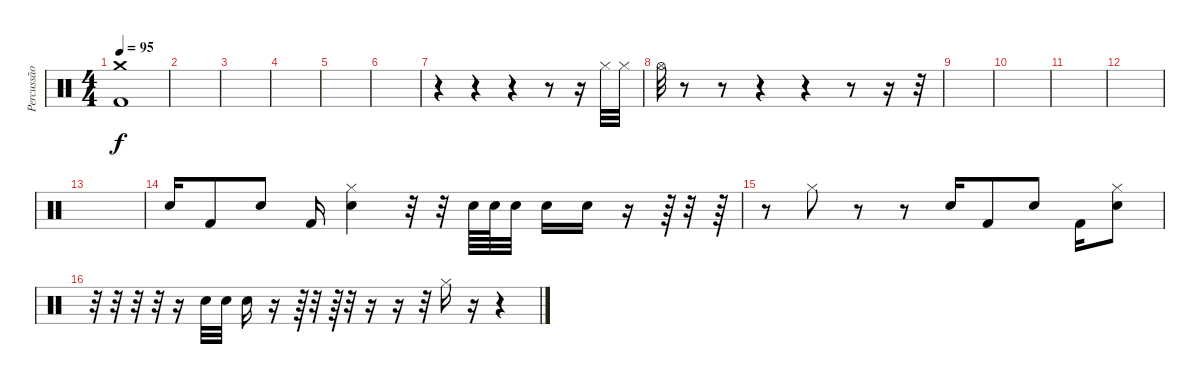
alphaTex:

\track ("Percussão" "Percussão") {instrument percussion}
\staff {score}
\articulation defaults
\ts (4 4)
\tempo 95
\clef neutral
\ks c
("Kick (hit) 2" "Crash medium (hit)").1{dy f} |
|
|
|
|
|
r.4 r.4 r.4 r.8 r.16 "Hi-Hat (closed)".32{volume 7} "Hi-Hat (closed)".32 |
"Hi-Hat (open)".32 r.8 r.8 r.4 r.4 r.8 r.16 r.32 |
|
|
|
|
|
"Snare (hit) 2".16{volume 16} "Kick (hit) 2".8 "Electric Snare (hit)".8 "Kick (hit) 2".16 ("Electric Snare (hit)" "Hi-Hat (closed)").4 r.32 r.32 "Snare (hit) 2".64 "Snare (hit) 2".64 "Snare (hit) 2".32 "Electric Snare (hit)".16 "Electric Snare (hit)".16 r.16 r.64 r.32 r.64 |
r.8 "Hi-Hat (closed)".8 r.8 r.8 "Snare (hit) 2".16{volume 16} "Kick (hit) 2".8 "Electric Snare (hit)".8 "Kick (hit) 2".16 ("Electric Snare (hit)" "Hi-Hat (closed)").8 |
r.32 r.32 r.32 r.32 r.16 "Snare (hit) 2".32 "Snare (hit) 2".32 "Electric Snare (hit)".16 r.16 r.64 r.32 r.64 r.32 r.16 r.16 r.32 "Hi-Hat (closed)".16 r.16 r.4
